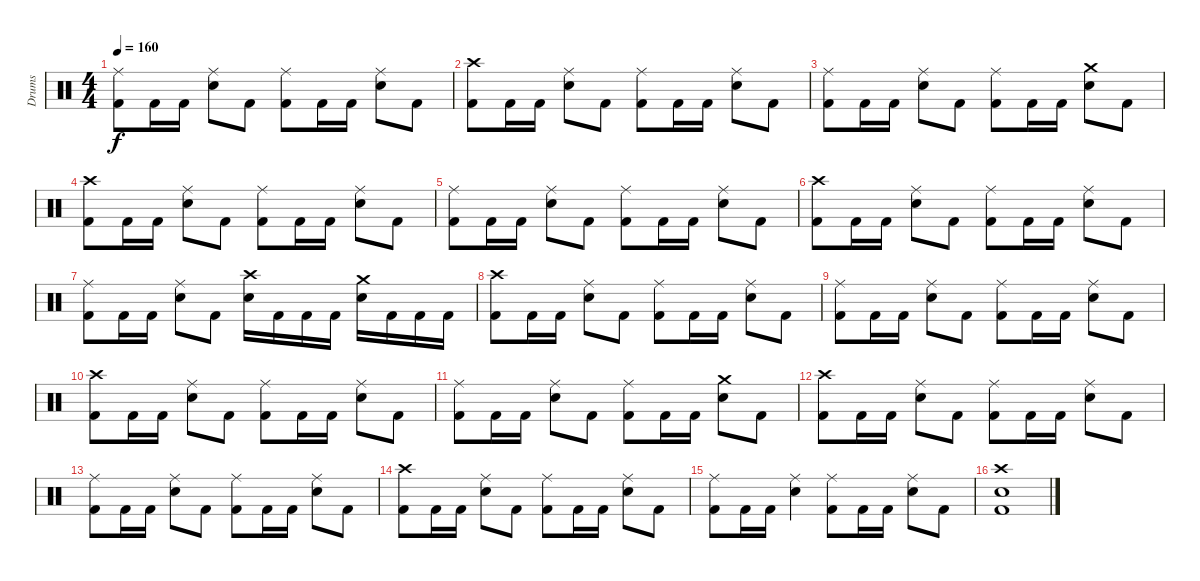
\track ("Drums" "Drums") {instrument percussion}
\staff {score}
\articulation defaults
\ts (4 4)
\tempo 160
\clef neutral
\ks c
("Ride (middle)" "Kick (hit) 2").8{dy f} "Kick (hit) 2".16 "Kick (hit) 2".16 ("Ride (middle)" "Snare (hit) 2").8 "Kick (hit) 2".8 ("Ride (middle)" "Kick (hit) 2").8 "Kick (hit) 2".16 "Kick (hit) 2".16 ("Ride (middle)" "Snare (hit) 2").8 "Kick (hit) 2".8 |
("Crash high (hit)" "Kick (hit) 2").8 "Kick (hit) 2".16 "Kick (hit) 2".16 ("Ride (middle)" "Snare (hit) 2").8 "Kick (hit) 2".8 ("Ride (middle)" "Kick (hit) 2").8 "Kick (hit) 2".16 "Kick (hit) 2".16 ("Ride (middle)" "Snare (hit) 2").8 "Kick (hit) 2".8 |
("Ride (middle)" "Kick (hit) 2").8 "Kick (hit) 2".16 "Kick (hit) 2".16 ("Ride (middle)" "Snare (hit) 2").8 "Kick (hit) 2".8 ("Ride (middle)" "Kick (hit) 2").8 "Kick (hit) 2".16 "Kick (hit) 2".16 ("Crash medium (hit)" "Snare (hit) 2").8 "Kick (hit) 2".8 |
("Crash high (hit)" "Kick (hit) 2").8 "Kick (hit) 2".16 "Kick (hit) 2".16 ("Ride (middle)" "Snare (hit) 2").8 "Kick (hit) 2".8 ("Ride (middle)" "Kick (hit) 2").8 "Kick (hit) 2".16 "Kick (hit) 2".16 ("Ride (middle)" "Snare (hit) 2").8 "Kick (hit) 2".8 |
("Ride (middle)" "Kick (hit) 2").8 "Kick (hit) 2".16 "Kick (hit) 2".16 ("Ride (middle)" "Snare (hit) 2").8 "Kick (hit) 2".8 ("Ride (middle)" "Kick (hit) 2").8 "Kick (hit) 2".16 "Kick (hit) 2".16 ("Ride (middle)" "Snare (hit) 2").8 "Kick (hit) 2".8 |
("Crash high (hit)" "Kick (hit) 2").8 "Kick (hit) 2".16 "Kick (hit) 2".16 ("Ride (middle)" "Snare (hit) 2").8 "Kick (hit) 2".8 ("Ride (middle)" "Kick (hit) 2").8 "Kick (hit) 2".16 "Kick (hit) 2".16 ("Ride (middle)" "Snare (hit) 2").8 "Kick (hit) 2".8 |
("Ride (middle)" "Kick (hit) 2").8 "Kick (hit) 2".16 "Kick (hit) 2".16 ("Ride (middle)" "Snare (hit) 2").8 "Kick (hit) 2".8 ("Crash high (hit)" "Snare (hit) 2").16 "Kick (hit) 2".16 "Kick (hit) 2".16 "Kick (hit) 2".16 ("Crash medium (hit)" "Snare (hit) 2").16 "Kick (hit) 2".16 "Kick (hit) 2".16 "Kick (hit) 2".16 |
("Crash high (hit)" "Kick (hit) 2").8 "Kick (hit) 2".16 "Kick (hit) 2".16 ("Ride (middle)" "Snare (hit) 2").8 "Kick (hit) 2".8 ("Ride (middle)" "Kick (hit) 2").8 "Kick (hit) 2".16 "Kick (hit) 2".16 ("Ride (middle)" "Snare (hit) 2").8 "Kick (hit) 2".8 |
("Ride (middle)" "Kick (hit) 2").8 "Kick (hit) 2".16 "Kick (hit) 2".16 ("Ride (middle)" "Snare (hit) 2").8 "Kick (hit) 2".8 ("Ride (middle)" "Kick (hit) 2").8 "Kick (hit) 2".16 "Kick (hit) 2".16 ("Ride (middle)" "Snare (hit) 2").8 "Kick (hit) 2".8 |
("Crash high (hit)" "Kick (hit) 2").8 "Kick (hit) 2".16 "Kick (hit) 2".16 ("Ride (middle)" "Snare (hit) 2").8 "Kick (hit) 2".8 ("Ride (middle)" "Kick (hit) 2").8 "Kick (hit) 2".16 "Kick (hit) 2".16 ("Ride (middle)" "Snare (hit) 2").8 "Kick (hit) 2".8 |
("Ride (middle)" "Kick (hit) 2").8 "Kick (hit) 2".16 "Kick (hit) 2".16 ("Ride (middle)" "Snare (hit) 2").8 "Kick (hit) 2".8 ("Ride (middle)" "Kick (hit) 2").8 "Kick (hit) 2".16 "Kick (hit) 2".16 ("Crash medium (hit)" "Snare (hit) 2").8 "Kick (hit) 2".8 |
("Crash high (hit)" "Kick (hit) 2").8 "Kick (hit) 2".16 "Kick (hit) 2".16 ("Ride (middle)" "Snare (hit) 2").8 "Kick (hit) 2".8 ("Ride (middle)" "Kick (hit) 2").8 "Kick (hit) 2".16 "Kick (hit) 2".16 ("Ride (middle)" "Snare (hit) 2").8 "Kick (hit) 2".8 |
("Ride (middle)" "Kick (hit) 2").8 "Kick (hit) 2".16 "Kick (hit) 2".16 ("Ride (middle)" "Snare (hit) 2").8 "Kick (hit) 2".8 ("Ride (middle)" "Kick (hit) 2").8 "Kick (hit) 2".16 "Kick (hit) 2".16 ("Ride (middle)" "Snare (hit) 2").8 "Kick (hit) 2".8 |
("Crash high (hit)" "Kick (hit) 2").8 "Kick (hit) 2".16 "Kick (hit) 2".16 ("Ride (middle)" "Snare (hit) 2").8 "Kick (hit) 2".8 ("Ride (middle)" "Kick (hit) 2").8 "Kick (hit) 2".16 "Kick (hit) 2".16 ("Ride (middle)" "Snare (hit) 2").8 "Kick (hit) 2".8 |
("Ride (middle)" "Kick (hit) 2").8 "Kick (hit) 2".16 "Kick (hit) 2".16 ("Ride (middle)" "Snare (hit) 2").4 ("Ride (middle)" "Kick (hit) 2").8 "Kick (hit) 2".16 "Kick (hit) 2".16 ("Ride (middle)" "Snare (hit) 2").8 "Kick (hit) 2".8 |
("Crash high (hit)" "Snare (hit) 2" "Kick (hit) 2").1
